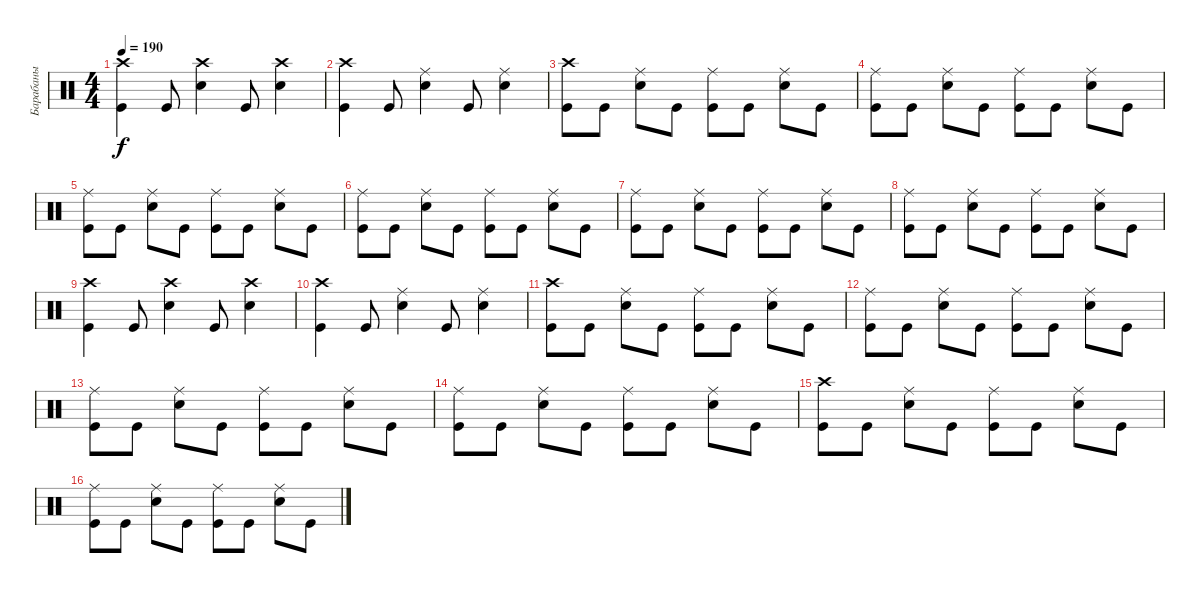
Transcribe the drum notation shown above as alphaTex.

\track ("Барабаны" "Барабаны") {instrument percussion}
\staff {score}
\articulation defaults
\ts (4 4)
\tempo 190
\clef neutral
\ks c
("Kick (hit)" "Crash high (hit)").4{dy f} "Kick (hit)".8 ("Snare (hit) 2" "Crash high (hit)").4 "Kick (hit)".8 ("Snare (hit) 2" "Crash high (hit)").4 |
("Kick (hit)" "Crash high (hit)").4 "Kick (hit)".8 ("Snare (hit) 2" "Ride (middle)").4 "Kick (hit)".8 ("Snare (hit) 2" "Ride (middle)").4 |
("Kick (hit)" "Crash high (hit)").8 "Kick (hit)".8 ("Snare (hit) 2" "Ride (middle)").8 "Kick (hit)".8 ("Kick (hit)" "Ride (middle)").8 "Kick (hit)".8 ("Snare (hit) 2" "Ride (middle)").8 "Kick (hit)".8 |
("Kick (hit)" "Ride (middle)").8 "Kick (hit)".8 ("Snare (hit) 2" "Ride (middle)").8 "Kick (hit)".8 ("Kick (hit)" "Ride (middle)").8 "Kick (hit)".8 ("Snare (hit) 2" "Ride (middle)").8 "Kick (hit)".8 |
("Kick (hit)" "Ride (middle)").8 "Kick (hit)".8 ("Snare (hit) 2" "Ride (middle)").8 "Kick (hit)".8 ("Kick (hit)" "Ride (middle)").8 "Kick (hit)".8 ("Snare (hit) 2" "Ride (middle)").8 "Kick (hit)".8 |
("Kick (hit)" "Ride (middle)").8 "Kick (hit)".8 ("Snare (hit) 2" "Ride (middle)").8 "Kick (hit)".8 ("Kick (hit)" "Ride (middle)").8 "Kick (hit)".8 ("Snare (hit) 2" "Ride (middle)").8 "Kick (hit)".8 |
("Kick (hit)" "Ride (middle)").8 "Kick (hit)".8 ("Snare (hit) 2" "Ride (middle)").8 "Kick (hit)".8 ("Kick (hit)" "Ride (middle)").8 "Kick (hit)".8 ("Snare (hit) 2" "Ride (middle)").8 "Kick (hit)".8 |
("Kick (hit)" "Ride (middle)").8 "Kick (hit)".8 ("Snare (hit) 2" "Ride (middle)").8 "Kick (hit)".8 ("Kick (hit)" "Ride (middle)").8 "Kick (hit)".8 ("Snare (hit) 2" "Ride (middle)").8 "Kick (hit)".8 |
("Kick (hit)" "Crash high (hit)").4 "Kick (hit)".8 ("Snare (hit) 2" "Crash high (hit)").4 "Kick (hit)".8 ("Snare (hit) 2" "Crash high (hit)").4 |
("Kick (hit)" "Crash high (hit)").4 "Kick (hit)".8 ("Snare (hit) 2" "Ride (middle)").4 "Kick (hit)".8 ("Snare (hit) 2" "Ride (middle)").4 |
("Kick (hit)" "Crash high (hit)").8 "Kick (hit)".8 ("Snare (hit) 2" "Ride (middle)").8 "Kick (hit)".8 ("Kick (hit)" "Ride (middle)").8 "Kick (hit)".8 ("Snare (hit) 2" "Ride (middle)").8 "Kick (hit)".8 |
("Kick (hit)" "Ride (middle)").8 "Kick (hit)".8 ("Snare (hit) 2" "Ride (middle)").8 "Kick (hit)".8 ("Kick (hit)" "Ride (middle)").8 "Kick (hit)".8 ("Snare (hit) 2" "Ride (middle)").8 "Kick (hit)".8 |
("Kick (hit)" "Ride (middle)").8 "Kick (hit)".8 ("Snare (hit) 2" "Ride (middle)").8 "Kick (hit)".8 ("Kick (hit)" "Ride (middle)").8 "Kick (hit)".8 ("Snare (hit) 2" "Ride (middle)").8 "Kick (hit)".8 |
("Kick (hit)" "Ride (middle)").8 "Kick (hit)".8 ("Snare (hit) 2" "Ride (middle)").8 "Kick (hit)".8 ("Kick (hit)" "Ride (middle)").8 "Kick (hit)".8 ("Snare (hit) 2" "Ride (middle)").8 "Kick (hit)".8 |
("Kick (hit)" "Crash high (hit)").8 "Kick (hit)".8 ("Snare (hit) 2" "Ride (middle)").8 "Kick (hit)".8 ("Kick (hit)" "Ride (middle)").8 "Kick (hit)".8 ("Snare (hit) 2" "Ride (middle)").8 "Kick (hit)".8 |
("Kick (hit)" "Ride (middle)").8 "Kick (hit)".8 ("Snare (hit) 2" "Ride (middle)").8 "Kick (hit)".8 ("Kick (hit)" "Ride (middle)").8 "Kick (hit)".8 ("Snare (hit) 2" "Ride (middle)").8 "Kick (hit)".8
